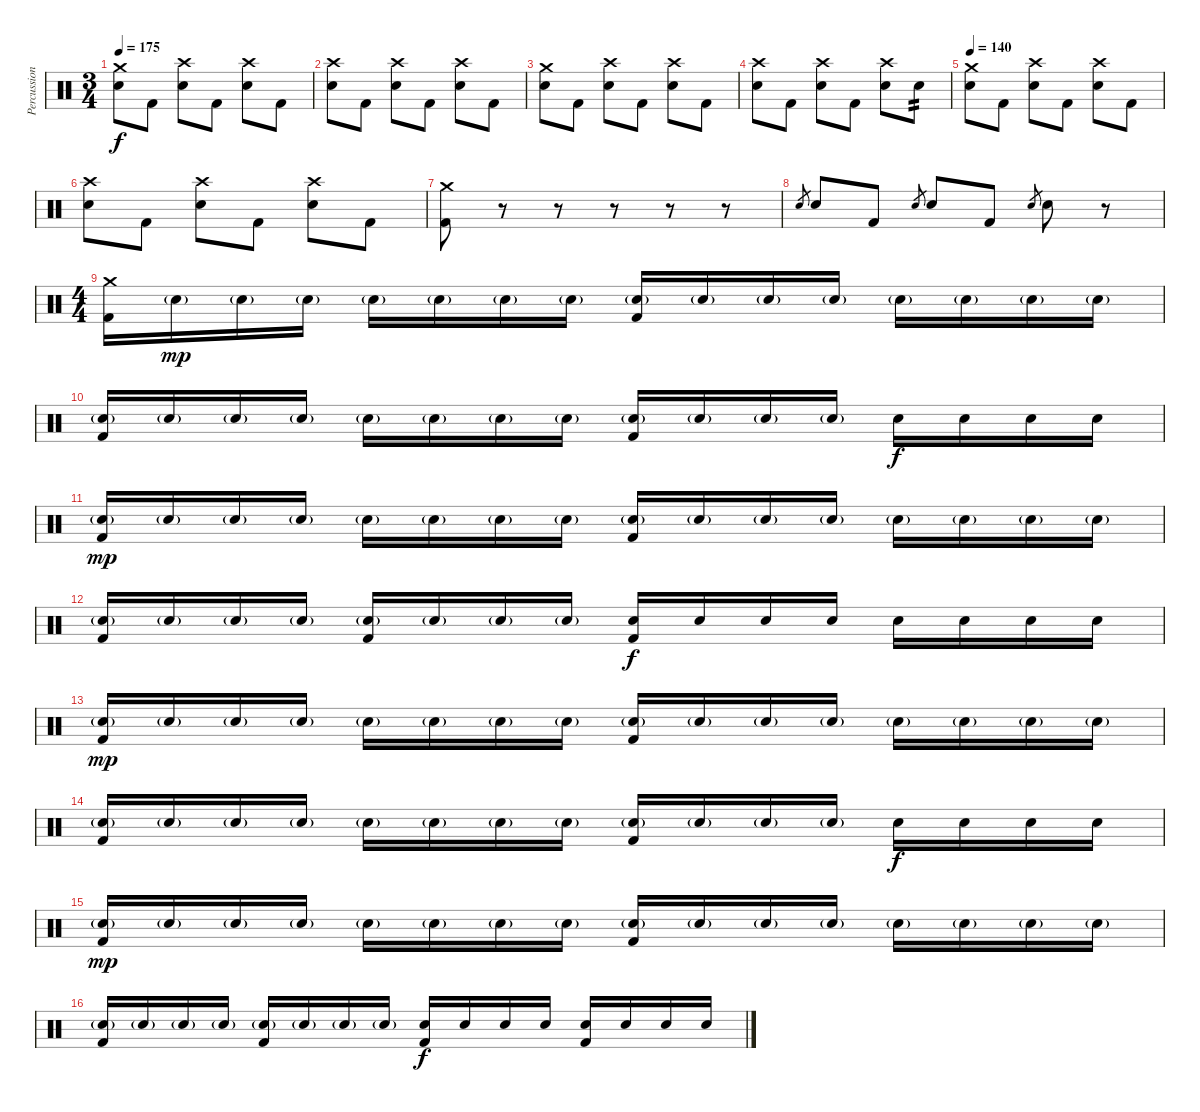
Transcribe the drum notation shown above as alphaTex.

\track ("Percussion" "Percussion") {instrument percussion}
\staff {score}
\articulation defaults
\ts (3 4)
\tempo 175
\clef neutral
\ks c
("Crash medium (hit)" "Electric Snare (hit)").8{dy f} "Kick (hit) 2".8 ("Crash high (hit)" "Electric Snare (hit)").8 "Kick (hit) 2".8 ("Crash high (hit)" "Electric Snare (hit)").8 "Kick (hit) 2".8 |
("Crash high (hit)" "Electric Snare (hit)").8 "Kick (hit) 2".8 ("Crash high (hit)" "Electric Snare (hit)").8 "Kick (hit) 2".8 ("Crash high (hit)" "Electric Snare (hit)").8 "Kick (hit) 2".8 |
("Crash medium (hit)" "Electric Snare (hit)").8 "Kick (hit) 2".8 ("Crash high (hit)" "Electric Snare (hit)").8 "Kick (hit) 2".8 ("Crash high (hit)" "Electric Snare (hit)").8 "Kick (hit) 2".8 |
("Crash high (hit)" "Electric Snare (hit)").8 "Kick (hit) 2".8 ("Crash high (hit)" "Electric Snare (hit)").8 "Kick (hit) 2".8 ("Crash high (hit)" "Electric Snare (hit)").8 "Electric Snare (hit)".8{tp 2} |
\tempo 140
("Crash medium (hit)" "Electric Snare (hit)").8 "Kick (hit) 2".8 ("Crash high (hit)" "Electric Snare (hit)").8 "Kick (hit) 2".8 ("Crash high (hit)" "Electric Snare (hit)").8 "Kick (hit) 2".8 |
("Crash high (hit)" "Electric Snare (hit)").8 "Kick (hit) 2".8 ("Crash high (hit)" "Electric Snare (hit)").8 "Kick (hit) 2".8 ("Crash high (hit)" "Electric Snare (hit)").8 "Kick (hit) 2".8 |
("Crash medium (hit)" "Kick (hit) 2").8 r.8 r.8 r.8 r.8 r.8 |
"Electric Snare (hit)".8{gr} "Electric Snare (hit)".8 "Kick (hit) 2".8 "Electric Snare (hit)".8{gr} "Electric Snare (hit)".8 "Kick (hit) 2".8 "Electric Snare (hit)".8{gr} "Electric Snare (hit)".8 r.8 |
\ts (4 4)
("Crash medium (hit)" "Kick (hit) 2").16 "Snare (hit) 2"{g}.16{dy mp} "Snare (hit) 2"{g}.16 "Snare (hit) 2"{g}.16 "Snare (hit) 2"{g}.16 "Snare (hit) 2"{g}.16 "Snare (hit) 2"{g}.16 "Snare (hit) 2"{g}.16 ("Snare (hit) 2"{g} "Kick (hit) 2").16 "Snare (hit) 2"{g}.16 "Snare (hit) 2"{g}.16 "Snare (hit) 2"{g}.16 "Snare (hit) 2"{g}.16 "Snare (hit) 2"{g}.16 "Snare (hit) 2"{g}.16 "Snare (hit) 2"{g}.16 |
("Snare (hit) 2"{g} "Kick (hit) 2").16 "Snare (hit) 2"{g}.16 "Snare (hit) 2"{g}.16 "Snare (hit) 2"{g}.16 "Snare (hit) 2"{g}.16 "Snare (hit) 2"{g}.16 "Snare (hit) 2"{g}.16 "Snare (hit) 2"{g}.16 ("Snare (hit) 2"{g} "Kick (hit) 2").16 "Snare (hit) 2"{g}.16 "Snare (hit) 2"{g}.16 "Snare (hit) 2"{g}.16 "Snare (hit) 2".16{dy f} "Snare (hit) 2".16 "Snare (hit) 2".16 "Snare (hit) 2".16 |
("Snare (hit) 2"{g} "Kick (hit) 2").16{dy mp} "Snare (hit) 2"{g}.16 "Snare (hit) 2"{g}.16 "Snare (hit) 2"{g}.16 "Snare (hit) 2"{g}.16 "Snare (hit) 2"{g}.16 "Snare (hit) 2"{g}.16 "Snare (hit) 2"{g}.16 ("Snare (hit) 2"{g} "Kick (hit) 2").16 "Snare (hit) 2"{g}.16 "Snare (hit) 2"{g}.16 "Snare (hit) 2"{g}.16 "Snare (hit) 2"{g}.16 "Snare (hit) 2"{g}.16 "Snare (hit) 2"{g}.16 "Snare (hit) 2"{g}.16 |
("Snare (hit) 2"{g} "Kick (hit) 2").16 "Snare (hit) 2"{g}.16 "Snare (hit) 2"{g}.16 "Snare (hit) 2"{g}.16 ("Snare (hit) 2"{g} "Kick (hit) 2").16 "Snare (hit) 2"{g}.16 "Snare (hit) 2"{g}.16 "Snare (hit) 2"{g}.16 ("Snare (hit) 2" "Kick (hit) 2").16{dy f} "Snare (hit) 2".16 "Snare (hit) 2".16 "Snare (hit) 2".16 "Snare (hit) 2".16 "Snare (hit) 2".16 "Snare (hit) 2".16 "Snare (hit) 2".16 |
("Snare (hit) 2"{g} "Kick (hit) 2").16{dy mp} "Snare (hit) 2"{g}.16 "Snare (hit) 2"{g}.16 "Snare (hit) 2"{g}.16 "Snare (hit) 2"{g}.16 "Snare (hit) 2"{g}.16 "Snare (hit) 2"{g}.16 "Snare (hit) 2"{g}.16 ("Snare (hit) 2"{g} "Kick (hit) 2").16 "Snare (hit) 2"{g}.16 "Snare (hit) 2"{g}.16 "Snare (hit) 2"{g}.16 "Snare (hit) 2"{g}.16 "Snare (hit) 2"{g}.16 "Snare (hit) 2"{g}.16 "Snare (hit) 2"{g}.16 |
("Snare (hit) 2"{g} "Kick (hit) 2").16 "Snare (hit) 2"{g}.16 "Snare (hit) 2"{g}.16 "Snare (hit) 2"{g}.16 "Snare (hit) 2"{g}.16 "Snare (hit) 2"{g}.16 "Snare (hit) 2"{g}.16 "Snare (hit) 2"{g}.16 ("Snare (hit) 2"{g} "Kick (hit) 2").16 "Snare (hit) 2"{g}.16 "Snare (hit) 2"{g}.16 "Snare (hit) 2"{g}.16 "Snare (hit) 2".16{dy f} "Snare (hit) 2".16 "Snare (hit) 2".16 "Snare (hit) 2".16 |
("Snare (hit) 2"{g} "Kick (hit) 2").16{dy mp} "Snare (hit) 2"{g}.16 "Snare (hit) 2"{g}.16 "Snare (hit) 2"{g}.16 "Snare (hit) 2"{g}.16 "Snare (hit) 2"{g}.16 "Snare (hit) 2"{g}.16 "Snare (hit) 2"{g}.16 ("Snare (hit) 2"{g} "Kick (hit) 2").16 "Snare (hit) 2"{g}.16 "Snare (hit) 2"{g}.16 "Snare (hit) 2"{g}.16 "Snare (hit) 2"{g}.16 "Snare (hit) 2"{g}.16 "Snare (hit) 2"{g}.16 "Snare (hit) 2"{g}.16 |
("Snare (hit) 2"{g} "Kick (hit) 2").16 "Snare (hit) 2"{g}.16 "Snare (hit) 2"{g}.16 "Snare (hit) 2"{g}.16 ("Snare (hit) 2"{g} "Kick (hit) 2").16 "Snare (hit) 2"{g}.16 "Snare (hit) 2"{g}.16 "Snare (hit) 2"{g}.16 ("Snare (hit) 2" "Kick (hit) 2").16{dy f} "Snare (hit) 2".16 "Snare (hit) 2".16 "Snare (hit) 2".16 ("Snare (hit) 2" "Kick (hit) 2").16 "Snare (hit) 2".16 "Snare (hit) 2".16 "Snare (hit) 2".16
